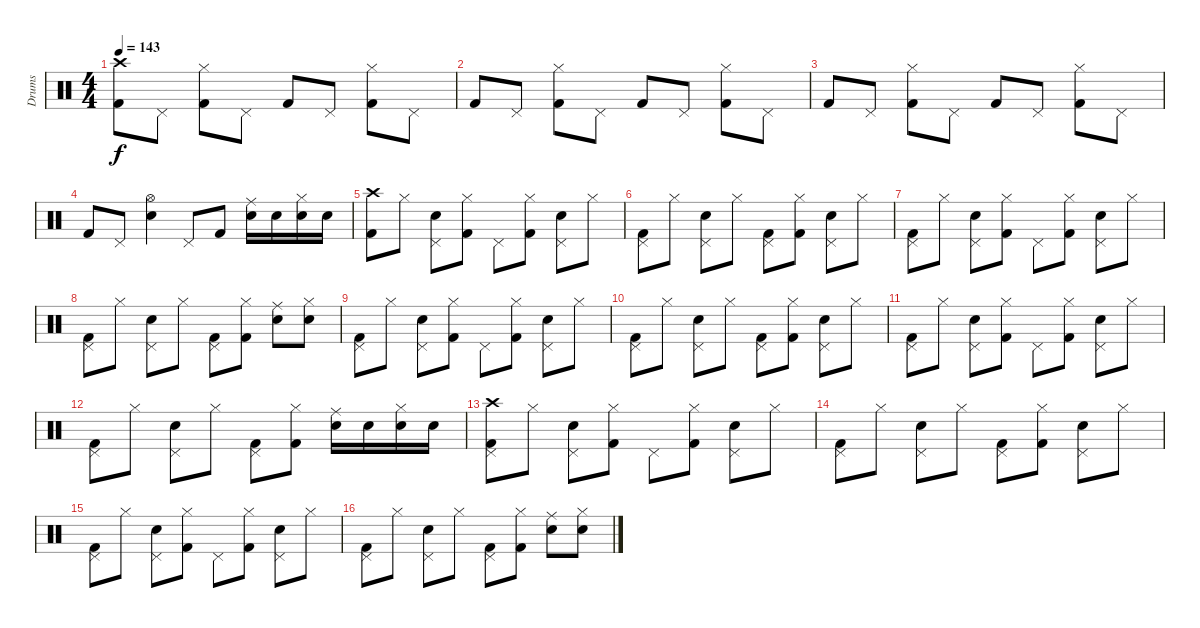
\track ("Drums" "Drums") {instrument percussion}
\staff {score}
\articulation defaults
\ts (4 4)
\tempo 143
\clef neutral
\ks c
("Kick (hit) 2" "Crash high (hit)").8{dy f} "Pedal Hi-Hat (hit)".8 ("Kick (hit) 2" "Hi-Hat (closed)").8 "Pedal Hi-Hat (hit)".8 "Kick (hit) 2".8 "Pedal Hi-Hat (hit)".8 ("Kick (hit) 2" "Hi-Hat (closed)").8 "Pedal Hi-Hat (hit)".8 |
"Kick (hit) 2".8 "Pedal Hi-Hat (hit)".8 ("Kick (hit) 2" "Hi-Hat (closed)").8 "Pedal Hi-Hat (hit)".8 "Kick (hit) 2".8 "Pedal Hi-Hat (hit)".8 ("Kick (hit) 2" "Hi-Hat (closed)").8 "Pedal Hi-Hat (hit)".8 |
"Kick (hit) 2".8 "Pedal Hi-Hat (hit)".8 ("Kick (hit) 2" "Hi-Hat (closed)").8 "Pedal Hi-Hat (hit)".8 "Kick (hit) 2".8 "Pedal Hi-Hat (hit)".8 ("Kick (hit) 2" "Hi-Hat (closed)").8 "Pedal Hi-Hat (hit)".8 |
"Kick (hit) 2".8 "Pedal Hi-Hat (hit)".8 ("Electric Snare (hit)" "Hi-Hat (open)").4 "Pedal Hi-Hat (hit)".8 "Kick (hit) 2".8 ("Electric Snare (hit)" "Ride (middle)").16 "Snare (hit) 2".16 ("Electric Snare (hit)" "Hi-Hat (closed)").16 "Snare (hit) 2".16 |
("Kick (hit) 2" "Crash high (hit)").8 "Hi-Hat (closed)".8 ("Electric Snare (hit)" "Pedal Hi-Hat (hit)").8 ("Kick (hit) 2" "Hi-Hat (closed)").8 "Pedal Hi-Hat (hit)".8 ("Kick (hit) 2" "Hi-Hat (closed)").8 ("Electric Snare (hit)" "Pedal Hi-Hat (hit)").8 "Hi-Hat (closed)".8 |
("Kick (hit) 2" "Pedal Hi-Hat (hit)").8 "Hi-Hat (closed)".8 ("Electric Snare (hit)" "Pedal Hi-Hat (hit)").8 "Hi-Hat (closed)".8 ("Kick (hit) 2" "Pedal Hi-Hat (hit)").8 ("Kick (hit) 2" "Hi-Hat (closed)").8 ("Electric Snare (hit)" "Pedal Hi-Hat (hit)").8 "Hi-Hat (closed)".8 |
("Kick (hit) 2" "Pedal Hi-Hat (hit)").8 "Hi-Hat (closed)".8 ("Electric Snare (hit)" "Pedal Hi-Hat (hit)").8 ("Kick (hit) 2" "Hi-Hat (closed)").8 "Pedal Hi-Hat (hit)".8 ("Kick (hit) 2" "Hi-Hat (closed)").8 ("Electric Snare (hit)" "Pedal Hi-Hat (hit)").8 "Hi-Hat (closed)".8 |
("Kick (hit) 2" "Pedal Hi-Hat (hit)").8 "Hi-Hat (closed)".8 ("Electric Snare (hit)" "Pedal Hi-Hat (hit)").8 "Hi-Hat (closed)".8 ("Kick (hit) 2" "Pedal Hi-Hat (hit)").8 ("Kick (hit) 2" "Hi-Hat (closed)").8 ("Electric Snare (hit)" "Ride (middle)").8 ("Electric Snare (hit)" "Hi-Hat (closed)").8 |
("Kick (hit) 2" "Pedal Hi-Hat (hit)").8 "Hi-Hat (closed)".8 ("Electric Snare (hit)" "Pedal Hi-Hat (hit)").8 ("Kick (hit) 2" "Hi-Hat (closed)").8 "Pedal Hi-Hat (hit)".8 ("Kick (hit) 2" "Hi-Hat (closed)").8 ("Electric Snare (hit)" "Pedal Hi-Hat (hit)").8 "Hi-Hat (closed)".8 |
("Kick (hit) 2" "Pedal Hi-Hat (hit)").8 "Hi-Hat (closed)".8 ("Electric Snare (hit)" "Pedal Hi-Hat (hit)").8 "Hi-Hat (closed)".8 ("Kick (hit) 2" "Pedal Hi-Hat (hit)").8 ("Kick (hit) 2" "Hi-Hat (closed)").8 ("Electric Snare (hit)" "Pedal Hi-Hat (hit)").8 "Hi-Hat (closed)".8 |
("Kick (hit) 2" "Pedal Hi-Hat (hit)").8 "Hi-Hat (closed)".8 ("Electric Snare (hit)" "Pedal Hi-Hat (hit)").8 ("Kick (hit) 2" "Hi-Hat (closed)").8 "Pedal Hi-Hat (hit)".8 ("Kick (hit) 2" "Hi-Hat (closed)").8 ("Electric Snare (hit)" "Pedal Hi-Hat (hit)").8 "Hi-Hat (closed)".8 |
("Kick (hit) 2" "Pedal Hi-Hat (hit)").8 "Hi-Hat (closed)".8 ("Electric Snare (hit)" "Pedal Hi-Hat (hit)").8 "Hi-Hat (closed)".8 ("Kick (hit) 2" "Pedal Hi-Hat (hit)").8 ("Kick (hit) 2" "Hi-Hat (closed)").8 ("Electric Snare (hit)" "Ride (middle)").16 "Snare (hit) 2".16 ("Electric Snare (hit)" "Hi-Hat (closed)").16 "Snare (hit) 2".16 |
("Kick (hit) 2" "Pedal Hi-Hat (hit)" "Crash high (hit)").8 "Hi-Hat (closed)".8 ("Electric Snare (hit)" "Pedal Hi-Hat (hit)").8 ("Kick (hit) 2" "Hi-Hat (closed)").8 "Pedal Hi-Hat (hit)".8 ("Kick (hit) 2" "Hi-Hat (closed)").8 ("Electric Snare (hit)" "Pedal Hi-Hat (hit)").8 "Hi-Hat (closed)".8 |
("Kick (hit) 2" "Pedal Hi-Hat (hit)").8 "Hi-Hat (closed)".8 ("Electric Snare (hit)" "Pedal Hi-Hat (hit)").8 "Hi-Hat (closed)".8 ("Kick (hit) 2" "Pedal Hi-Hat (hit)").8 ("Kick (hit) 2" "Hi-Hat (closed)").8 ("Electric Snare (hit)" "Pedal Hi-Hat (hit)").8 "Hi-Hat (closed)".8 |
("Kick (hit) 2" "Pedal Hi-Hat (hit)").8 "Hi-Hat (closed)".8 ("Electric Snare (hit)" "Pedal Hi-Hat (hit)").8 ("Kick (hit) 2" "Hi-Hat (closed)").8 "Pedal Hi-Hat (hit)".8 ("Kick (hit) 2" "Hi-Hat (closed)").8 ("Electric Snare (hit)" "Pedal Hi-Hat (hit)").8 "Hi-Hat (closed)".8 |
("Kick (hit) 2" "Pedal Hi-Hat (hit)").8 "Hi-Hat (closed)".8 ("Electric Snare (hit)" "Pedal Hi-Hat (hit)").8 "Hi-Hat (closed)".8 ("Kick (hit) 2" "Pedal Hi-Hat (hit)").8 ("Kick (hit) 2" "Hi-Hat (closed)").8 ("Electric Snare (hit)" "Ride (middle)").8 ("Electric Snare (hit)" "Hi-Hat (closed)").8
